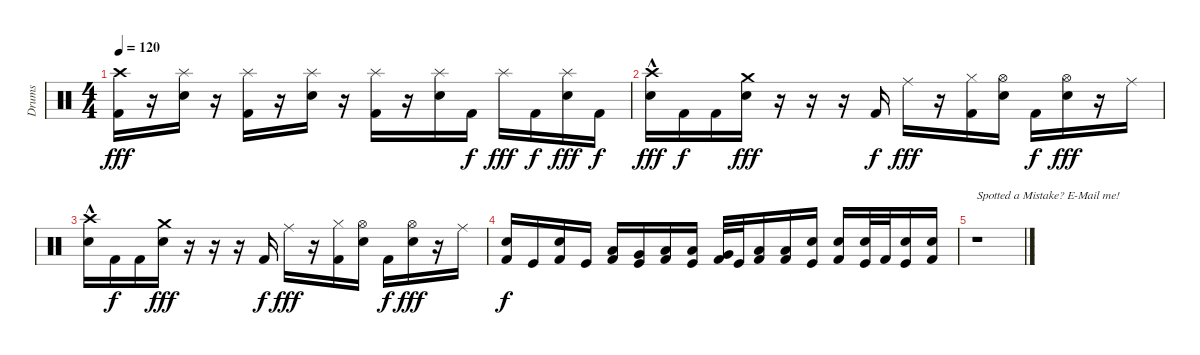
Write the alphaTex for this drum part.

\track ("Drums" "Drums") {instrument percussion}
\staff {score}
\articulation defaults
\ts (4 4)
\tempo 120
\clef neutral
\ks c
("Crash high (hit)" "Kick (hit) 2").16{dy fff} r.16 ("Splash (hit)" "Snare (hit) 2").16 r.16 ("Splash (hit)" "Kick (hit) 2").16 r.16 ("Splash (hit)" "Snare (hit) 2").16 r.16 ("Splash (hit)" "Kick (hit) 2").16 r.16 ("Splash (hit)" "Snare (hit) 2").16 "Kick (hit) 2".16{dy f} "Splash (hit)".16{dy fff} "Kick (hit) 2".16{dy f} ("Splash (hit)" "Snare (hit) 2").16{dy fff} "Kick (hit) 2".16{dy f} |
("Crash high (hit)"{hac} "Snare (hit) 2").16{dy fff} "Kick (hit) 2".16{dy f} "Kick (hit) 2".16 ("Crash medium (hit)" "Snare (hit) 2").16{dy fff} r.16 r.16 r.16 "Kick (hit) 2".16{dy f} "Ride (middle)".16{dy fff} r.16 ("Hi-Hat (closed)" "Kick (hit) 2").16 ("Hi-Hat (open)" "Snare (hit) 2").16 "Kick (hit) 2".16{dy f} ("Hi-Hat (open)" "Snare (hit) 2").16{dy fff} r.16 "Ride (middle)".16 |
("Crash high (hit)"{hac} "Snare (hit) 2").16 "Kick (hit) 2".16{dy f} "Kick (hit) 2".16 ("Crash medium (hit)" "Snare (hit) 2").16{dy fff} r.16 r.16 r.16 "Kick (hit) 2".16{dy f} "Ride (middle)".16{dy fff} r.16 ("Hi-Hat (closed)" "Kick (hit) 2").16 ("Hi-Hat (open)" "Snare (hit) 2").16 "Kick (hit) 2".16{dy f} ("Hi-Hat (open)" "Snare (hit) 2").16{dy fff} r.16 "Ride (middle)".16 |
("Snare (hit) 2" "Kick (hit) 2").16{dy f} "Kick (hit)".16 ("Snare (hit) 2" "Kick (hit) 2").16 "Kick (hit)".16 ("Low Tom (hit)" "Kick (hit) 2").16 ("Very Low Tom (hit)" "Kick (hit)").16 ("Low Floor Tom (hit)" "Kick (hit) 2").16 ("Low Tom (hit)" "Kick (hit)").16 ("Very Low Tom (hit)" "Kick (hit) 2").32 "Kick (hit)".32 ("Low Floor Tom (hit)" "Kick (hit) 2").16 ("Low Tom (hit)" "Kick (hit) 2").16 ("Snare (hit) 2" "Kick (hit)").16 ("Snare (hit) 2" "Kick (hit) 2").16 ("Snare (hit) 2" "Kick (hit)").32 "Kick (hit) 2".32 ("Snare (hit) 2" "Kick (hit)").16 ("Snare (hit) 2" "Kick (hit) 2").16 |
r.1{txt "Spotted a Mistake? E-Mail me!"}
